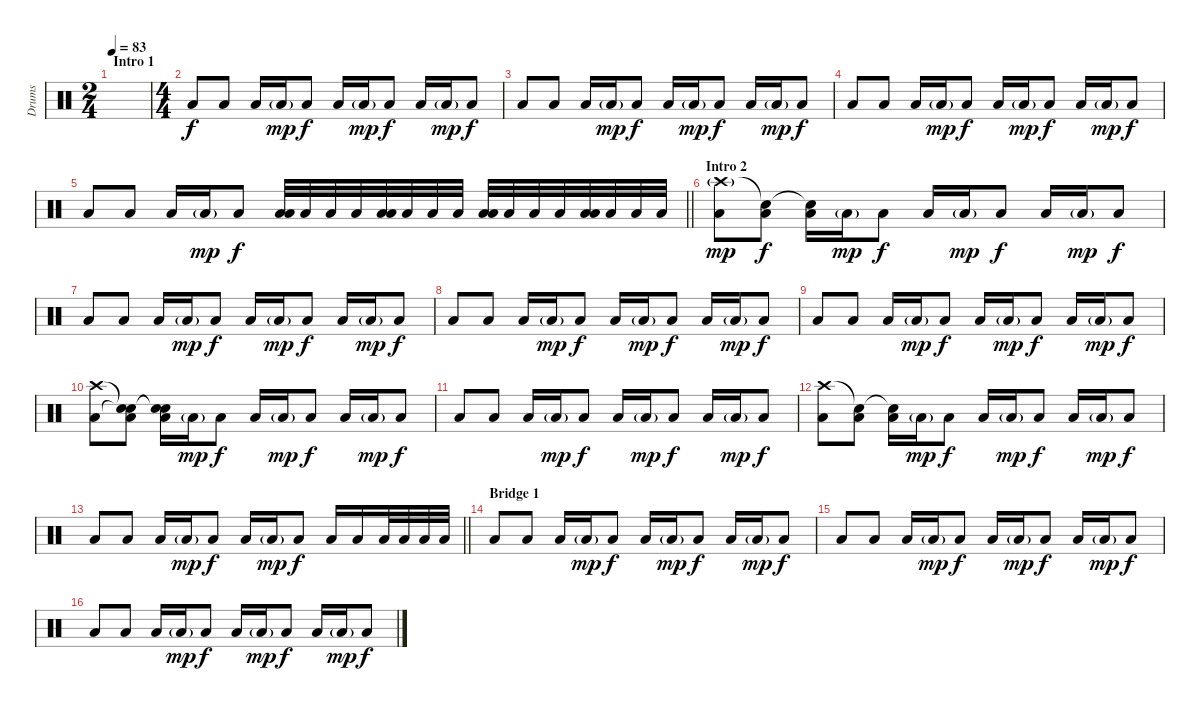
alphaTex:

\track ("Drums" "Drums") {instrument percussion}
\staff {score}
\articulation defaults
\ts (2 4)
\section ("" "Intro 1")
\tempo 83
\clef neutral
\ks c
|
\ts (4 4)
"Low Floor Tom (hit)".8 "Low Tom (hit)".8 "Low Floor Tom (hit)".16 "Low Tom (hit)"{g}.16{dy mp} "Low Tom (hit)".8{dy f} "Low Floor Tom (hit)".16 "Low Tom (hit)"{g}.16{dy mp} "Low Tom (hit)".8{dy f} "Low Floor Tom (hit)".16 "Low Tom (hit)"{g}.16{dy mp} "Low Tom (hit)".8{dy f} |
"Low Floor Tom (hit)".8 "Low Tom (hit)".8 "Low Floor Tom (hit)".16 "Low Tom (hit)"{g}.16{dy mp} "Low Tom (hit)".8{dy f} "Low Floor Tom (hit)".16 "Low Tom (hit)"{g}.16{dy mp} "Low Tom (hit)".8{dy f} "Low Floor Tom (hit)".16 "Low Tom (hit)"{g}.16{dy mp} "Low Tom (hit)".8{dy f} |
"Low Floor Tom (hit)".8 "Low Tom (hit)".8 "Low Floor Tom (hit)".16 "Low Tom (hit)"{g}.16{dy mp} "Low Tom (hit)".8{dy f} "Low Floor Tom (hit)".16 "Low Tom (hit)"{g}.16{dy mp} "Low Tom (hit)".8{dy f} "Low Floor Tom (hit)".16 "Low Tom (hit)"{g}.16{dy mp} "Low Tom (hit)".8{dy f} |
\barLineRight lightlight "Low Floor Tom (hit)".8 "Low Tom (hit)".8 "Low Floor Tom (hit)".16 "Low Tom (hit)"{g}.16{dy mp} "Low Tom (hit)".8{dy f}
("Low Tom (hit)" "Low Floor Tom (hit)").32 "Low Tom (hit)".32 "Low Tom (hit)".32 "Low Tom (hit)".32 ("Low Tom (hit)" "Low Floor Tom (hit)").32 "Low Tom (hit)".32 "Low Tom (hit)".32 "Low Tom (hit)".32 ("Low Tom (hit)" "Low Floor Tom (hit)").32 "Low Tom (hit)".32 "Low Tom (hit)".32 "Low Tom (hit)".32 ("Low Tom (hit)" "Low Floor Tom (hit)").32 "Low Tom (hit)".32 "Low Tom (hit)".32 "Low Tom (hit)".32 |
\section ("" "Intro 2")
("Crash high (hit)"{g} "Low Floor Tom (hit)").8{dy mp} ("Snare (hit)"{t} "Low Tom (hit)").8{dy f} ("Snare (hit)"{t} "Low Floor Tom (hit)").16 "Low Tom (hit)"{g}.16{dy mp} "Low Tom (hit)".8{dy f} "Low Floor Tom (hit)".16 "Low Tom (hit)"{g}.16{dy mp} "Low Tom (hit)".8{dy f} "Low Floor Tom (hit)".16 "Low Tom (hit)"{g}.16{dy mp} "Low Tom (hit)".8{dy f} |
"Low Floor Tom (hit)".8 "Low Tom (hit)".8 "Low Floor Tom (hit)".16 "Low Tom (hit)"{g}.16{dy mp} "Low Tom (hit)".8{dy f} "Low Floor Tom (hit)".16 "Low Tom (hit)"{g}.16{dy mp} "Low Tom (hit)".8{dy f} "Low Floor Tom (hit)".16 "Low Tom (hit)"{g}.16{dy mp} "Low Tom (hit)".8{dy f} |
"Low Floor Tom (hit)".8 "Low Tom (hit)".8 "Low Floor Tom (hit)".16 "Low Tom (hit)"{g}.16{dy mp} "Low Tom (hit)".8{dy f} "Low Floor Tom (hit)".16 "Low Tom (hit)"{g}.16{dy mp} "Low Tom (hit)".8{dy f} "Low Floor Tom (hit)".16 "Low Tom (hit)"{g}.16{dy mp} "Low Tom (hit)".8{dy f} |
"Low Floor Tom (hit)".8 "Low Tom (hit)".8 "Low Floor Tom (hit)".16 "Low Tom (hit)"{g}.16{dy mp} "Low Tom (hit)".8{dy f} "Low Floor Tom (hit)".16 "Low Tom (hit)"{g}.16{dy mp} "Low Tom (hit)".8{dy f} "Low Floor Tom (hit)".16 "Low Tom (hit)"{g}.16{dy mp} "Low Tom (hit)".8{dy f} |
("Crash high (hit)" "Low Floor Tom (hit)").8 ("Snare (hit)"{t} "Snare (hit)"{t} "Low Tom (hit)").8 ("Snare (hit)"{t} "Snare (hit)"{t} "Low Floor Tom (hit)").16 "Low Tom (hit)"{g}.16{dy mp} "Low Tom (hit)".8{dy f} "Low Floor Tom (hit)".16 "Low Tom (hit)"{g}.16{dy mp} "Low Tom (hit)".8{dy f} "Low Floor Tom (hit)".16 "Low Tom (hit)"{g}.16{dy mp} "Low Tom (hit)".8{dy f} |
"Low Floor Tom (hit)".8 "Low Tom (hit)".8 "Low Floor Tom (hit)".16 "Low Tom (hit)"{g}.16{dy mp} "Low Tom (hit)".8{dy f} "Low Floor Tom (hit)".16 "Low Tom (hit)"{g}.16{dy mp} "Low Tom (hit)".8{dy f} "Low Floor Tom (hit)".16 "Low Tom (hit)"{g}.16{dy mp} "Low Tom (hit)".8{dy f} |
("Crash high (hit)" "Low Floor Tom (hit)").8 ("Snare (hit)"{t} "Low Tom (hit)").8 ("Snare (hit)"{t} "Low Floor Tom (hit)").16 "Low Tom (hit)"{g}.16{dy mp} "Low Tom (hit)".8{dy f} "Low Floor Tom (hit)".16 "Low Tom (hit)"{g}.16{dy mp} "Low Tom (hit)".8{dy f} "Low Floor Tom (hit)".16 "Low Tom (hit)"{g}.16{dy mp} "Low Tom (hit)".8{dy f} |
\barLineRight lightlight "Low Floor Tom (hit)".8 "Low Tom (hit)".8 "Low Floor Tom (hit)".16 "Low Tom (hit)"{g}.16{dy mp} "Low Tom (hit)".8{dy f} "Low Floor Tom (hit)".16 "Low Tom (hit)"{g}.16{dy mp} "Low Tom (hit)".8{dy f} "Low Floor Tom (hit)".16 "Low Tom (hit)".16 "Low Tom (hit)".32 "Low Tom (hit)".32 "Low Tom (hit)".32 "Low Tom (hit)".32
|
\section ("" "Bridge 1")
"Low Floor Tom (hit)".8 "Low Tom (hit)".8 "Low Floor Tom (hit)".16 "Low Tom (hit)"{g}.16{dy mp} "Low Tom (hit)".8{dy f} "Low Floor Tom (hit)".16 "Low Tom (hit)"{g}.16{dy mp} "Low Tom (hit)".8{dy f} "Low Floor Tom (hit)".16 "Low Tom (hit)"{g}.16{dy mp} "Low Tom (hit)".8{dy f} |
"Low Floor Tom (hit)".8 "Low Tom (hit)".8 "Low Floor Tom (hit)".16 "Low Tom (hit)"{g}.16{dy mp} "Low Tom (hit)".8{dy f} "Low Floor Tom (hit)".16 "Low Tom (hit)"{g}.16{dy mp} "Low Tom (hit)".8{dy f} "Low Floor Tom (hit)".16 "Low Tom (hit)"{g}.16{dy mp} "Low Tom (hit)".8{dy f} |
"Low Floor Tom (hit)".8 "Low Tom (hit)".8 "Low Floor Tom (hit)".16 "Low Tom (hit)"{g}.16{dy mp} "Low Tom (hit)".8{dy f} "Low Floor Tom (hit)".16 "Low Tom (hit)"{g}.16{dy mp} "Low Tom (hit)".8{dy f} "Low Floor Tom (hit)".16 "Low Tom (hit)"{g}.16{dy mp} "Low Tom (hit)".8{dy f}
